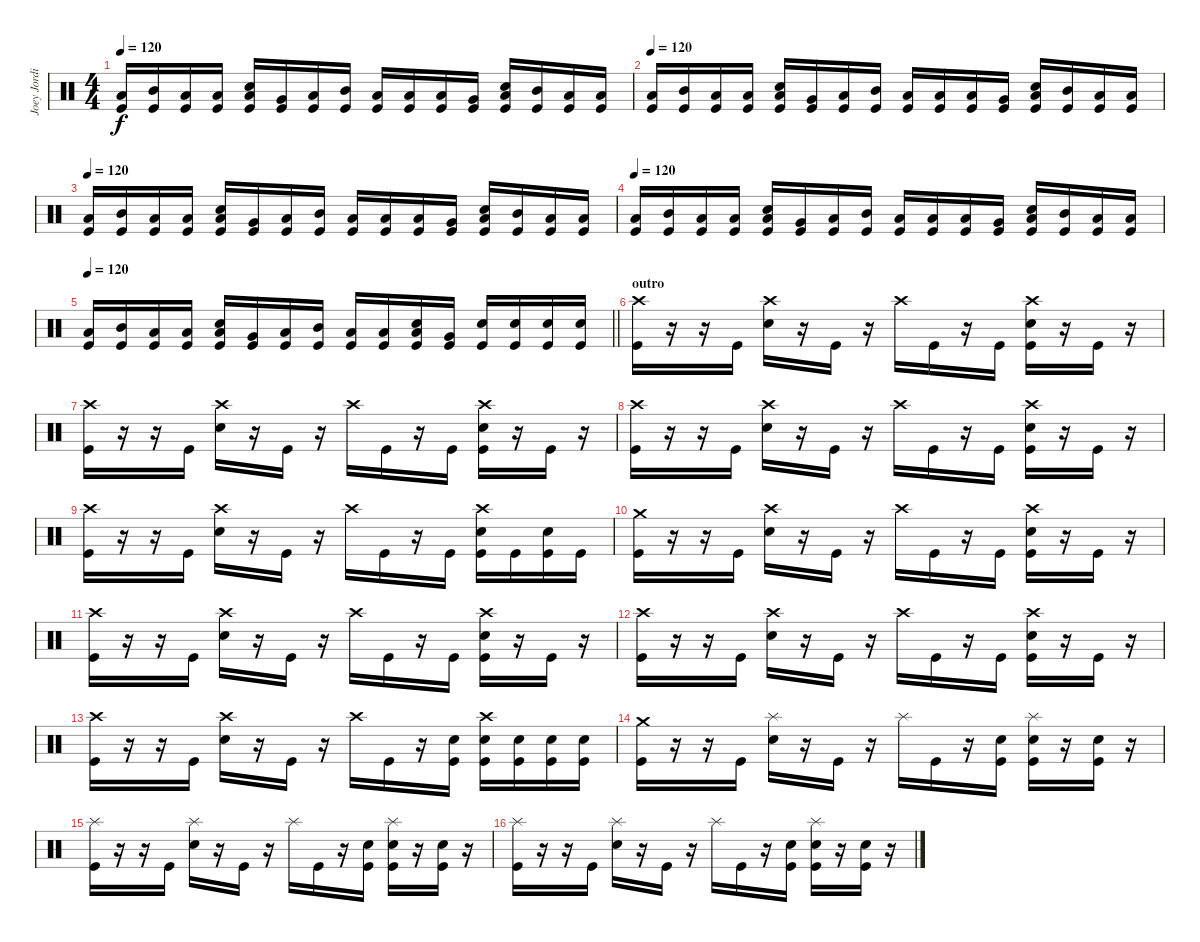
\track ("Joey Jordison" "Joey Jordi") {instrument percussion}
\staff {score}
\articulation defaults
\ts (4 4)
\tempo 120
\clef neutral
\ks c
("Low Floor Tom (hit)" "Kick (hit)").16{dy f} ("Mid Tom (hit)" "Kick (hit)").16 ("Low Floor Tom (hit)" "Kick (hit)").16 ("Low Tom (hit)" "Kick (hit)").16 ("Low Floor Tom (hit)" "Electric Snare (hit)" "Kick (hit)").16 ("Very Low Tom (hit)" "Kick (hit)").16 ("Low Floor Tom (hit)" "Kick (hit)").16 ("Mid Tom (hit)" "Kick (hit)").16 ("Low Floor Tom (hit)" "Kick (hit)").16 ("Low Tom (hit)" "Kick (hit)").16 ("Low Floor Tom (hit)" "Kick (hit)").16 ("Very Low Tom (hit)" "Kick (hit)").16 ("Low Floor Tom (hit)" "Electric Snare (hit)" "Kick (hit)").16 ("Mid Tom (hit)" "Kick (hit)").16 ("Low Floor Tom (hit)" "Kick (hit)").16 ("Low Tom (hit)" "Kick (hit)").16 |
\tempo 120
("Low Floor Tom (hit)" "Kick (hit)").16 ("Mid Tom (hit)" "Kick (hit)").16 ("Low Floor Tom (hit)" "Kick (hit)").16 ("Low Tom (hit)" "Kick (hit)").16 ("Low Floor Tom (hit)" "Electric Snare (hit)" "Kick (hit)").16 ("Very Low Tom (hit)" "Kick (hit)").16 ("Low Floor Tom (hit)" "Kick (hit)").16 ("Mid Tom (hit)" "Kick (hit)").16 ("Low Floor Tom (hit)" "Kick (hit)").16 ("Low Tom (hit)" "Kick (hit)").16 ("Low Floor Tom (hit)" "Kick (hit)").16 ("Very Low Tom (hit)" "Kick (hit)").16 ("Low Floor Tom (hit)" "Electric Snare (hit)" "Kick (hit)").16 ("Mid Tom (hit)" "Kick (hit)").16 ("Low Floor Tom (hit)" "Kick (hit)").16 ("Low Tom (hit)" "Kick (hit)").16 |
\tempo 120
("Low Floor Tom (hit)" "Kick (hit)").16 ("Mid Tom (hit)" "Kick (hit)").16 ("Low Floor Tom (hit)" "Kick (hit)").16 ("Low Tom (hit)" "Kick (hit)").16 ("Low Floor Tom (hit)" "Electric Snare (hit)" "Kick (hit)").16 ("Very Low Tom (hit)" "Kick (hit)").16 ("Low Floor Tom (hit)" "Kick (hit)").16 ("Mid Tom (hit)" "Kick (hit)").16 ("Low Floor Tom (hit)" "Kick (hit)").16 ("Low Tom (hit)" "Kick (hit)").16 ("Low Floor Tom (hit)" "Kick (hit)").16 ("Very Low Tom (hit)" "Kick (hit)").16 ("Low Floor Tom (hit)" "Electric Snare (hit)" "Kick (hit)").16 ("Mid Tom (hit)" "Kick (hit)").16 ("Low Floor Tom (hit)" "Kick (hit)").16 ("Low Tom (hit)" "Kick (hit)").16 |
\tempo 120
("Low Floor Tom (hit)" "Kick (hit)").16 ("Mid Tom (hit)" "Kick (hit)").16 ("Low Floor Tom (hit)" "Kick (hit)").16 ("Low Tom (hit)" "Kick (hit)").16 ("Low Floor Tom (hit)" "Electric Snare (hit)" "Kick (hit)").16 ("Very Low Tom (hit)" "Kick (hit)").16 ("Low Floor Tom (hit)" "Kick (hit)").16 ("Mid Tom (hit)" "Kick (hit)").16 ("Low Floor Tom (hit)" "Kick (hit)").16 ("Low Tom (hit)" "Kick (hit)").16 ("Low Floor Tom (hit)" "Kick (hit)").16 ("Very Low Tom (hit)" "Kick (hit)").16 ("Low Floor Tom (hit)" "Electric Snare (hit)" "Kick (hit)").16 ("Mid Tom (hit)" "Kick (hit)").16 ("Low Floor Tom (hit)" "Kick (hit)").16 ("Low Tom (hit)" "Kick (hit)").16 |
\tempo 120
\barLineRight lightlight
("Low Floor Tom (hit)" "Kick (hit)").16 ("Mid Tom (hit)" "Kick (hit)").16 ("Low Floor Tom (hit)" "Kick (hit)").16 ("Low Tom (hit)" "Kick (hit)").16 ("Low Floor Tom (hit)" "Electric Snare (hit)" "Kick (hit)").16 ("Very Low Tom (hit)" "Kick (hit)").16 ("Low Floor Tom (hit)" "Kick (hit)").16 ("Mid Tom (hit)" "Kick (hit)").16 ("Low Floor Tom (hit)" "Kick (hit)").16 ("Low Tom (hit)" "Kick (hit)").16 ("Low Floor Tom (hit)" "Electric Snare (hit)" "Kick (hit)").16 ("Very Low Tom (hit)" "Kick (hit)").16 ("Electric Snare (hit)" "Kick (hit)").16 ("Electric Snare (hit)" "Kick (hit)").16 ("Electric Snare (hit)" "Kick (hit)").16 ("Electric Snare (hit)" "Kick (hit)").16 |
\section ("" "outro")
("Crash high (hit)" "Kick (hit)").16 r.16 r.16 "Kick (hit)".16 ("Crash high (hit)" "Electric Snare (hit)").16 r.16 "Kick (hit)".16 r.16 "Crash high (hit)".16 "Kick (hit)".16 r.16 "Kick (hit)".16 ("Crash high (hit)" "Electric Snare (hit)" "Kick (hit)").16 r.16 "Kick (hit)".16 r.16 |
("Crash high (hit)" "Kick (hit)").16 r.16 r.16 "Kick (hit)".16 ("Crash high (hit)" "Electric Snare (hit)").16 r.16 "Kick (hit)".16 r.16 "Crash high (hit)".16 "Kick (hit)".16 r.16 "Kick (hit)".16 ("Crash high (hit)" "Electric Snare (hit)" "Kick (hit)").16 r.16 "Kick (hit)".16 r.16 |
("Crash high (hit)" "Kick (hit)").16 r.16 r.16 "Kick (hit)".16 ("Crash high (hit)" "Electric Snare (hit)").16 r.16 "Kick (hit)".16 r.16 "Crash high (hit)".16 "Kick (hit)".16 r.16 "Kick (hit)".16 ("Crash high (hit)" "Electric Snare (hit)" "Kick (hit)").16 r.16 "Kick (hit)".16 r.16 |
("Crash high (hit)" "Kick (hit)").16 r.16 r.16 "Kick (hit)".16 ("Crash high (hit)" "Electric Snare (hit)").16 r.16 "Kick (hit)".16 r.16 "Crash high (hit)".16 "Kick (hit)".16 r.16 "Kick (hit)".16 ("Crash high (hit)" "Electric Snare (hit)" "Kick (hit)").16 "Kick (hit)".16 ("Electric Snare (hit)" "Kick (hit)").16 "Kick (hit)".16 |
("Crash medium (hit)" "Kick (hit)").16 r.16 r.16 "Kick (hit)".16 ("Crash high (hit)" "Electric Snare (hit)").16 r.16 "Kick (hit)".16 r.16 "Crash high (hit)".16 "Kick (hit)".16 r.16 "Kick (hit)".16 ("Crash high (hit)" "Electric Snare (hit)" "Kick (hit)").16 r.16 "Kick (hit)".16 r.16 |
("Crash high (hit)" "Kick (hit)").16 r.16 r.16 "Kick (hit)".16 ("Crash high (hit)" "Electric Snare (hit)").16 r.16 "Kick (hit)".16 r.16 "Crash high (hit)".16 "Kick (hit)".16 r.16 "Kick (hit)".16 ("Crash high (hit)" "Electric Snare (hit)" "Kick (hit)").16 r.16 "Kick (hit)".16 r.16 |
("Crash high (hit)" "Kick (hit)").16 r.16 r.16 "Kick (hit)".16 ("Crash high (hit)" "Electric Snare (hit)").16 r.16 "Kick (hit)".16 r.16 "Crash high (hit)".16 "Kick (hit)".16 r.16 "Kick (hit)".16 ("Crash high (hit)" "Electric Snare (hit)" "Kick (hit)").16 r.16 "Kick (hit)".16 r.16 |
("Crash high (hit)" "Kick (hit)").16 r.16 r.16 "Kick (hit)".16 ("Crash high (hit)" "Electric Snare (hit)").16 r.16 "Kick (hit)".16 r.16 "Crash high (hit)".16 "Kick (hit)".16 r.16 ("Electric Snare (hit)" "Kick (hit)").16 ("Crash high (hit)" "Electric Snare (hit)" "Kick (hit)").16 ("Electric Snare (hit)" "Kick (hit)").16 ("Electric Snare (hit)" "Kick (hit)").16 ("Electric Snare (hit)" "Kick (hit)").16 |
("Crash medium (hit)" "Kick (hit)").16 r.16 r.16 "Kick (hit)".16 ("Splash (hit)" "Electric Snare (hit)").16 r.16 "Kick (hit)".16 r.16 "Splash (hit)".16 "Kick (hit)".16 r.16 ("Electric Snare (hit)" "Kick (hit)").16 ("Splash (hit)" "Electric Snare (hit)" "Kick (hit)").16 r.16 ("Electric Snare (hit)" "Kick (hit)").16 r.16 |
("Splash (hit)" "Kick (hit)").16 r.16 r.16 "Kick (hit)".16 ("Splash (hit)" "Electric Snare (hit)").16 r.16 "Kick (hit)".16 r.16 "Splash (hit)".16 "Kick (hit)".16 r.16 ("Electric Snare (hit)" "Kick (hit)").16 ("Splash (hit)" "Electric Snare (hit)" "Kick (hit)").16 r.16 ("Electric Snare (hit)" "Kick (hit)").16 r.16 |
("Splash (hit)" "Kick (hit)").16 r.16 r.16 "Kick (hit)".16 ("Splash (hit)" "Electric Snare (hit)").16 r.16 "Kick (hit)".16 r.16 "Splash (hit)".16 "Kick (hit)".16 r.16 ("Electric Snare (hit)" "Kick (hit)").16 ("Splash (hit)" "Electric Snare (hit)" "Kick (hit)").16 r.16 ("Electric Snare (hit)" "Kick (hit)").16 r.16
